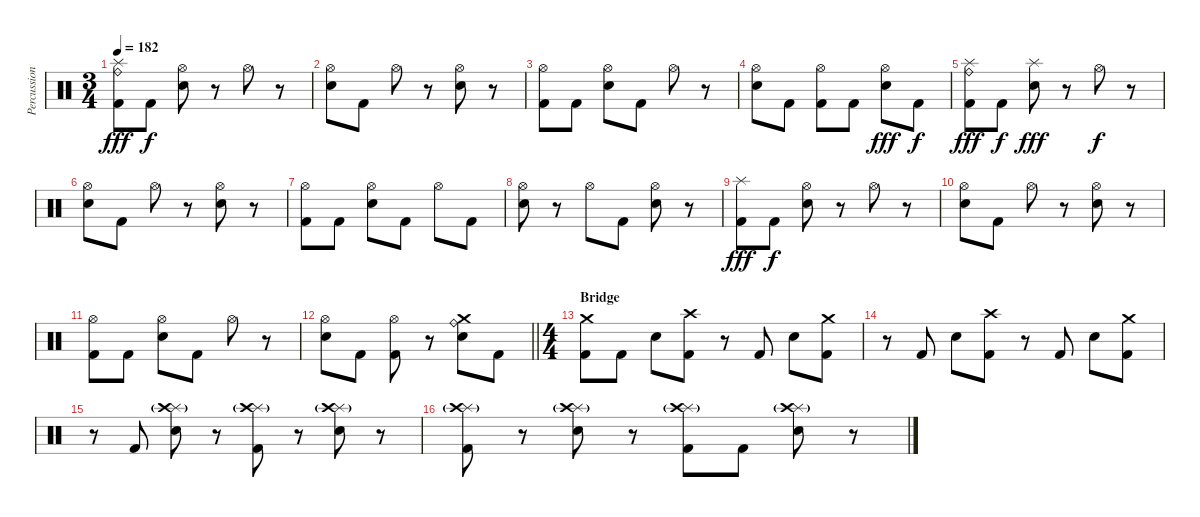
\track ("Percussion" "Percussion") {instrument percussion}
\staff {score}
\articulation defaults
\ts (3 4)
\tempo 182
\clef neutral
\ks c
("Splash (hit)" "Ride (bell)" "Kick (hit) 2").8{dy fff} "Kick (hit) 2".8{dy f} ("Hi-Hat (open)" "Electric Snare (hit)").8 r.8 "Hi-Hat (open)".8 r.8 |
("Hi-Hat (open)" "Electric Snare (hit)").8 "Kick (hit) 2".8 "Hi-Hat (open)".8 r.8 ("Hi-Hat (open)" "Electric Snare (hit)").8 r.8 |
("Hi-Hat (open)" "Kick (hit) 2").8 "Kick (hit) 2".8 ("Hi-Hat (open)" "Electric Snare (hit)").8 "Kick (hit) 2".8 "Hi-Hat (open)".8 r.8 |
("Hi-Hat (open)" "Electric Snare (hit)").8 "Kick (hit) 2".8 ("Hi-Hat (open)" "Kick (hit) 2").8 "Kick (hit) 2".8 ("Hi-Hat (open)" "Electric Snare (hit)").8{dy fff} "Kick (hit) 2".8{dy f} |
("Splash (hit)" "Ride (bell)" "Kick (hit) 2").8{dy fff} "Kick (hit) 2".8{dy f} ("Splash (hit)" "Electric Snare (hit)").8{dy fff} r.8 "Hi-Hat (open)".8{dy f} r.8 |
("Hi-Hat (open)" "Electric Snare (hit)").8 "Kick (hit) 2".8 "Hi-Hat (open)".8 r.8 ("Hi-Hat (open)" "Electric Snare (hit)").8 r.8 |
("Hi-Hat (open)" "Kick (hit) 2").8 "Kick (hit) 2".8 ("Hi-Hat (open)" "Electric Snare (hit)").8 "Kick (hit) 2".8 "Hi-Hat (open)".8 "Kick (hit) 2".8 |
("Hi-Hat (open)" "Electric Snare (hit)").8 r.8 "Hi-Hat (open)".8 "Kick (hit) 2".8 ("Hi-Hat (open)" "Electric Snare (hit)").8 r.8 |
("Splash (hit)" "Kick (hit) 2").8{dy fff} "Kick (hit) 2".8{dy f} ("Hi-Hat (open)" "Electric Snare (hit)").8 r.8 "Hi-Hat (open)".8 r.8 |
("Hi-Hat (open)" "Electric Snare (hit)").8 "Kick (hit) 2".8 "Hi-Hat (open)".8 r.8 ("Hi-Hat (open)" "Electric Snare (hit)").8 r.8 |
("Hi-Hat (open)" "Kick (hit) 2").8 "Kick (hit) 2".8 ("Hi-Hat (open)" "Electric Snare (hit)").8 "Kick (hit) 2".8 "Hi-Hat (open)".8 r.8 |
\barLineRight lightlight
("Hi-Hat (open)" "Electric Snare (hit)").8 "Kick (hit) 2".8 ("Hi-Hat (open)" "Kick (hit) 2").8 r.8 ("Ride (bell)" "Crash medium (hit)" "Electric Snare (hit)").8 "Kick (hit) 2".8 |
\ts (4 4)
\section ("" "Bridge")
("Crash medium (hit)" "Kick (hit) 2").8 "Kick (hit) 2".8 "Electric Snare (hit)".8 ("Crash high (hit)" "Kick (hit) 2").8 r.8 "Kick (hit) 2".8 "Electric Snare (hit)".8 ("Crash medium (hit)" "Kick (hit) 2").8 |
r.8 "Kick (hit) 2".8 "Electric Snare (hit)".8 ("Crash high (hit)" "Kick (hit) 2").8 r.8 "Kick (hit) 2".8 "Electric Snare (hit)".8 ("Crash medium (hit)" "Kick (hit) 2").8 |
r.8 "Kick (hit) 2".8 ("Splash (hit)"{g} "Crash high (hit)" "Electric Snare (hit)").8 r.8 ("Splash (hit)"{g} "Crash high (hit)" "Kick (hit) 2").8 r.8 ("Splash (hit)"{g} "Crash high (hit)" "Electric Snare (hit)").8 r.8 |
("Splash (hit)"{g} "Crash high (hit)" "Kick (hit) 2").8 r.8 ("Splash (hit)"{g} "Crash high (hit)" "Electric Snare (hit)").8 r.8 ("Splash (hit)"{g} "Crash high (hit)" "Kick (hit) 2").8 "Kick (hit) 2".8 ("Splash (hit)"{g} "Crash high (hit)" "Electric Snare (hit)").8 r.8
